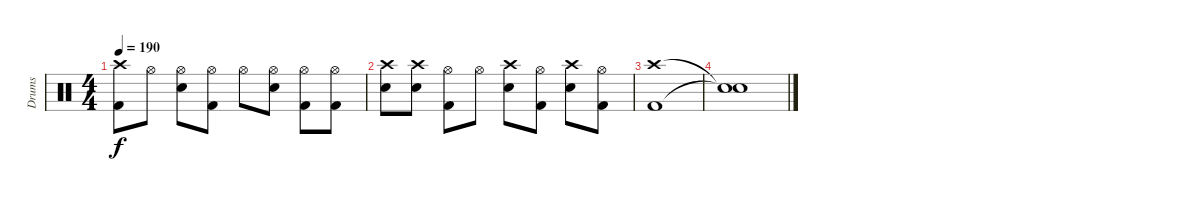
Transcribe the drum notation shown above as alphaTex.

\track ("Drums" "Drums") {instrument percussion}
\staff {score}
\articulation defaults
\ts (4 4)
\tempo 190
\clef neutral
\ks c
("Crash high (hit)" "Kick (hit) 2").8{dy f} "Hi-Hat (open)".8 ("Hi-Hat (open)" "Electric Snare (hit)").8 ("Hi-Hat (open)" "Kick (hit) 2").8 "Hi-Hat (open)".8 ("Hi-Hat (open)" "Electric Snare (hit)").8 ("Hi-Hat (open)" "Kick (hit) 2").8 ("Hi-Hat (open)" "Kick (hit) 2").8 |
("Crash high (hit)" "Electric Snare (hit)").8 ("Crash high (hit)" "Electric Snare (hit)").8 ("Hi-Hat (open)" "Kick (hit) 2").8 "Hi-Hat (open)".8 ("Crash high (hit)" "Electric Snare (hit)").8 ("Hi-Hat (open)" "Kick (hit) 2").8 ("Crash high (hit)" "Electric Snare (hit)").8 ("Hi-Hat (open)" "Kick (hit) 2").8 |
("Crash high (hit)" "Kick (hit) 2").1 |
("Snare (hit)"{t} "Snare (hit)"{t}).1
